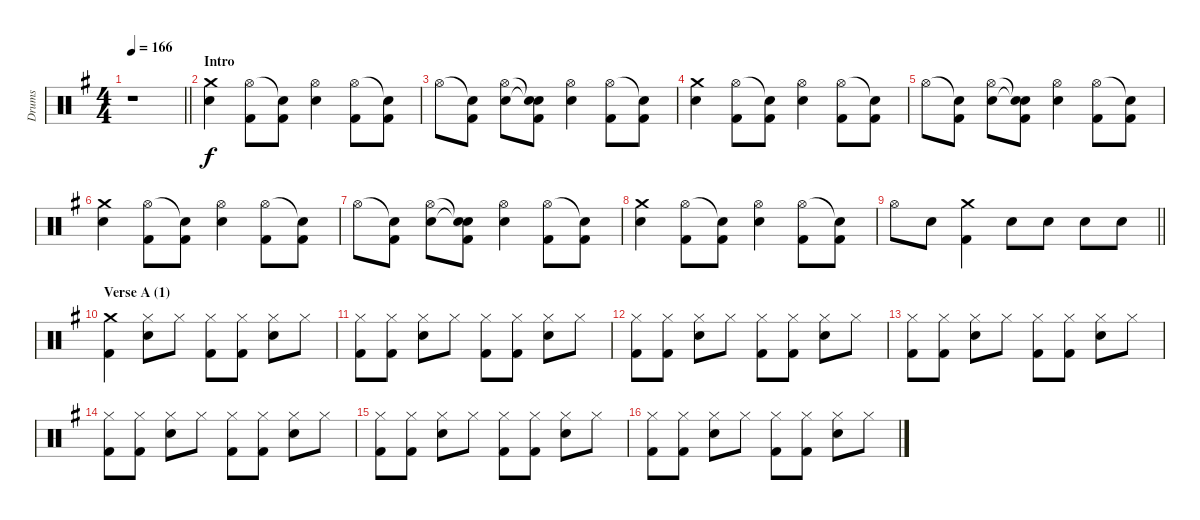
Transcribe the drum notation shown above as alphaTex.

\track ("Drums" "Drums") {instrument percussion}
\staff {score}
\articulation defaults
\ts (4 4)
\tempo 166
\clef neutral
\barLineRight lightlight
\ks g
r.1{dy f} |
\section ("" "Intro")
("Crash medium (hit)" "Electric Snare (hit)").4 ("Hi-Hat (open)" "Kick (hit) 2").8 ("Snare (hit)"{t} "Kick (hit) 2").8 ("Hi-Hat (open)" "Electric Snare (hit)").4 ("Hi-Hat (open)" "Kick (hit) 2").8 ("Snare (hit)"{t} "Kick (hit) 2").8 |
"Hi-Hat (open)".8 ("Snare (hit)"{t} "Kick (hit) 2").8 ("Hi-Hat (open)" "Electric Snare (hit)").8 ("Snare (hit)"{t} "Snare (hit)"{t} "Kick (hit) 2").8 ("Hi-Hat (open)" "Electric Snare (hit)").4 ("Hi-Hat (open)" "Kick (hit) 2").8 ("Snare (hit)"{t} "Kick (hit) 2").8 |
("Crash medium (hit)" "Electric Snare (hit)").4 ("Hi-Hat (open)" "Kick (hit) 2").8 ("Snare (hit)"{t} "Kick (hit) 2").8 ("Hi-Hat (open)" "Electric Snare (hit)").4 ("Hi-Hat (open)" "Kick (hit) 2").8 ("Snare (hit)"{t} "Kick (hit) 2").8 |
"Hi-Hat (open)".8 ("Snare (hit)"{t} "Kick (hit) 2").8 ("Hi-Hat (open)" "Electric Snare (hit)").8 ("Snare (hit)"{t} "Snare (hit)"{t} "Kick (hit) 2").8 ("Hi-Hat (open)" "Electric Snare (hit)").4 ("Hi-Hat (open)" "Kick (hit) 2").8 ("Snare (hit)"{t} "Kick (hit) 2").8 |
("Crash medium (hit)" "Electric Snare (hit)").4 ("Hi-Hat (open)" "Kick (hit) 2").8 ("Snare (hit)"{t} "Kick (hit) 2").8 ("Hi-Hat (open)" "Electric Snare (hit)").4 ("Hi-Hat (open)" "Kick (hit) 2").8 ("Snare (hit)"{t} "Kick (hit) 2").8 |
"Hi-Hat (open)".8 ("Snare (hit)"{t} "Kick (hit) 2").8 ("Hi-Hat (open)" "Electric Snare (hit)").8 ("Snare (hit)"{t} "Snare (hit)"{t} "Kick (hit) 2").8 ("Hi-Hat (open)" "Electric Snare (hit)").4 ("Hi-Hat (open)" "Kick (hit) 2").8 ("Snare (hit)"{t} "Kick (hit) 2").8 |
("Crash medium (hit)" "Electric Snare (hit)").4 ("Hi-Hat (open)" "Kick (hit) 2").8 ("Snare (hit)"{t} "Kick (hit) 2").8 ("Hi-Hat (open)" "Electric Snare (hit)").4 ("Hi-Hat (open)" "Kick (hit) 2").8 ("Snare (hit)"{t} "Kick (hit) 2").8 |
\barLineRight lightlight "Hi-Hat (open)".8 "Electric Snare (hit)".8
("Crash medium (hit)" "Kick (hit) 2").4 "Electric Snare (hit)".8 "Electric Snare (hit)".8 "Electric Snare (hit)".8 "Electric Snare (hit)".8 |
\section ("" "Verse A (1)")
("Crash medium (hit)" "Kick (hit) 2").4 ("Hi-Hat (closed)" "Electric Snare (hit)").8 "Hi-Hat (closed)".8 ("Hi-Hat (closed)" "Kick (hit) 2").8 ("Hi-Hat (closed)" "Kick (hit) 2").8 ("Hi-Hat (closed)" "Electric Snare (hit)").8 "Hi-Hat (closed)".8 |
("Hi-Hat (closed)" "Kick (hit) 2").8 ("Hi-Hat (closed)" "Kick (hit) 2").8 ("Hi-Hat (closed)" "Electric Snare (hit)").8 "Hi-Hat (closed)".8 ("Hi-Hat (closed)" "Kick (hit) 2").8 ("Hi-Hat (closed)" "Kick (hit) 2").8 ("Hi-Hat (closed)" "Electric Snare (hit)").8 "Hi-Hat (closed)".8 |
("Hi-Hat (closed)" "Kick (hit) 2").8 ("Hi-Hat (closed)" "Kick (hit) 2").8 ("Hi-Hat (closed)" "Electric Snare (hit)").8 "Hi-Hat (closed)".8 ("Hi-Hat (closed)" "Kick (hit) 2").8 ("Hi-Hat (closed)" "Kick (hit) 2").8 ("Hi-Hat (closed)" "Electric Snare (hit)").8 "Hi-Hat (closed)".8 |
("Hi-Hat (closed)" "Kick (hit) 2").8 ("Hi-Hat (closed)" "Kick (hit) 2").8 ("Hi-Hat (closed)" "Electric Snare (hit)").8 "Hi-Hat (closed)".8 ("Hi-Hat (closed)" "Kick (hit) 2").8 ("Hi-Hat (closed)" "Kick (hit) 2").8 ("Hi-Hat (closed)" "Electric Snare (hit)").8 "Hi-Hat (closed)".8 |
("Hi-Hat (closed)" "Kick (hit) 2").8 ("Hi-Hat (closed)" "Kick (hit) 2").8 ("Hi-Hat (closed)" "Electric Snare (hit)").8 "Hi-Hat (closed)".8 ("Hi-Hat (closed)" "Kick (hit) 2").8 ("Hi-Hat (closed)" "Kick (hit) 2").8 ("Hi-Hat (closed)" "Electric Snare (hit)").8 "Hi-Hat (closed)".8 |
("Hi-Hat (closed)" "Kick (hit) 2").8 ("Hi-Hat (closed)" "Kick (hit) 2").8 ("Hi-Hat (closed)" "Electric Snare (hit)").8 "Hi-Hat (closed)".8 ("Hi-Hat (closed)" "Kick (hit) 2").8 ("Hi-Hat (closed)" "Kick (hit) 2").8 ("Hi-Hat (closed)" "Electric Snare (hit)").8 "Hi-Hat (closed)".8 |
("Hi-Hat (closed)" "Kick (hit) 2").8 ("Hi-Hat (closed)" "Kick (hit) 2").8 ("Hi-Hat (closed)" "Electric Snare (hit)").8 "Hi-Hat (closed)".8 ("Hi-Hat (closed)" "Kick (hit) 2").8 ("Hi-Hat (closed)" "Kick (hit) 2").8 ("Hi-Hat (closed)" "Electric Snare (hit)").8 "Hi-Hat (closed)".8
